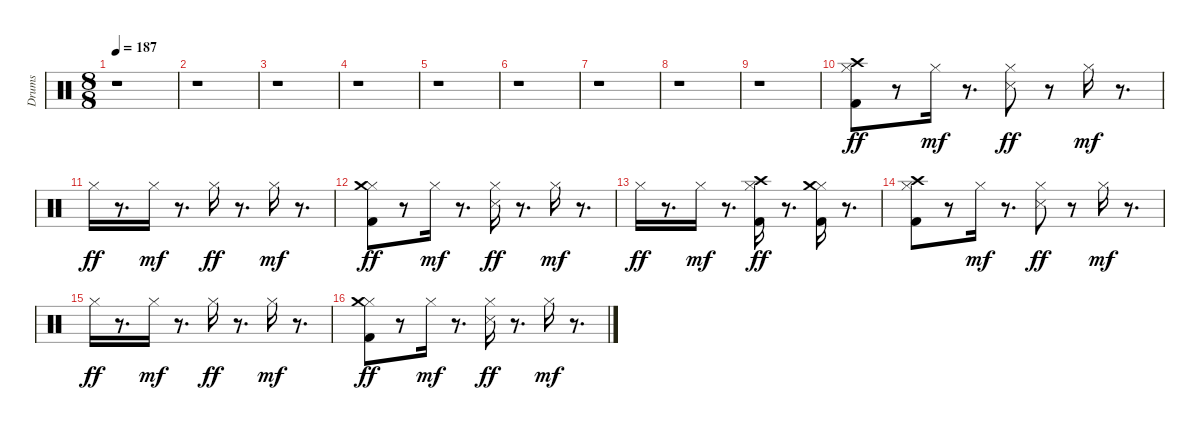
\track ("Drums" "Drums") {instrument percussion}
\staff {score}
\articulation defaults
\ts (8 8)
\tempo 187
\clef neutral
\ks c
r.1{dy f} |
r.1 |
r.1 |
r.1 |
r.1 |
r.1 |
r.1 |
r.1 |
r.1 |
("Kick (hit) 2" "Hi-Hat (closed)" "Crash high (hit)").8{dy ff} r.8 "Hi-Hat (closed)".16{dy mf} r.8{d} ("Snare (side stick) 3" "Hi-Hat (closed)").8{dy ff} r.8 "Hi-Hat (closed)".16{dy mf} r.8{d} |
"Hi-Hat (closed)".16{dy ff} r.8{d} "Hi-Hat (closed)".16{dy mf} r.8{d} "Hi-Hat (closed)".16{dy ff} r.8{d} "Hi-Hat (closed)".16{dy mf} r.8{d} |
("Kick (hit) 2" "Hi-Hat (closed)" "Crash medium (hit)").8{dy ff} r.8 "Hi-Hat (closed)".16{dy mf} r.8{d} ("Snare (side stick) 3" "Hi-Hat (closed)").16{dy ff} r.8{d} "Hi-Hat (closed)".16{dy mf} r.8{d} |
"Hi-Hat (closed)".16{dy ff} r.8{d} "Hi-Hat (closed)".16{dy mf} r.8{d} ("Kick (hit) 2" "Hi-Hat (closed)" "Crash high (hit)").16{dy ff} r.8{d} ("Kick (hit) 2" "Hi-Hat (closed)" "Crash medium (hit)").16 r.8{d} |
("Kick (hit) 2" "Hi-Hat (closed)" "Crash high (hit)").8 r.8 "Hi-Hat (closed)".16{dy mf} r.8{d} ("Snare (side stick) 3" "Hi-Hat (closed)").8{dy ff} r.8 "Hi-Hat (closed)".16{dy mf} r.8{d} |
"Hi-Hat (closed)".16{dy ff} r.8{d} "Hi-Hat (closed)".16{dy mf} r.8{d} "Hi-Hat (closed)".16{dy ff} r.8{d} "Hi-Hat (closed)".16{dy mf} r.8{d} |
("Kick (hit) 2" "Hi-Hat (closed)" "Crash medium (hit)").8{dy ff} r.8 "Hi-Hat (closed)".16{dy mf} r.8{d} ("Snare (side stick) 3" "Hi-Hat (closed)").16{dy ff} r.8{d} "Hi-Hat (closed)".16{dy mf} r.8{d}
